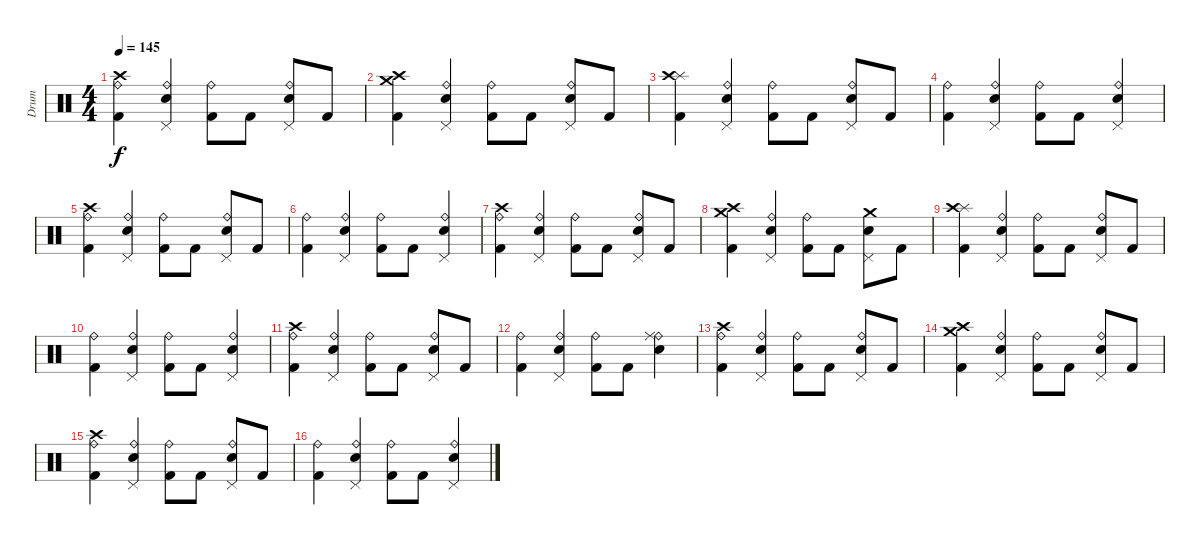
\track ("Drum" "Drum") {instrument percussion}
\staff {score}
\articulation defaults
\ts (4 4)
\tempo 145
\clef neutral
\ks c
("Ride (bell)" "Crash high (hit)" "Kick (hit) 2").4{dy f} ("Ride (bell)" "Snare (hit) 2" "Pedal Hi-Hat (hit)").4 ("Ride (bell)" "Kick (hit) 2").8 "Kick (hit) 2".8 ("Ride (bell)" "Snare (hit) 2" "Pedal Hi-Hat (hit)").8 "Kick (hit) 2".8 |
("Crash medium (hit)" "Crash high (hit)" "Kick (hit) 2").4 ("Ride (bell)" "Snare (hit) 2" "Pedal Hi-Hat (hit)").4 ("Ride (bell)" "Kick (hit) 2").8 "Kick (hit) 2".8 ("Ride (bell)" "Snare (hit) 2" "Pedal Hi-Hat (hit)").8 "Kick (hit) 2".8 |
("Splash (hit)" "Crash high (hit)" "Kick (hit) 2").4 ("Ride (bell)" "Snare (hit) 2" "Pedal Hi-Hat (hit)").4 ("Ride (bell)" "Kick (hit) 2").8 "Kick (hit) 2".8 ("Ride (bell)" "Snare (hit) 2" "Pedal Hi-Hat (hit)").8 "Kick (hit) 2".8 |
("Ride (bell)" "Kick (hit) 2").4 ("Ride (bell)" "Snare (hit) 2" "Pedal Hi-Hat (hit)").4 ("Ride (bell)" "Kick (hit) 2").8 "Kick (hit) 2".8 ("Ride (bell)" "Snare (hit) 2" "Pedal Hi-Hat (hit)").4 |
("Ride (bell)" "Crash high (hit)" "Kick (hit) 2").4 ("Ride (bell)" "Snare (hit) 2" "Pedal Hi-Hat (hit)").4 ("Ride (bell)" "Kick (hit) 2").8 "Kick (hit) 2".8 ("Ride (bell)" "Snare (hit) 2" "Pedal Hi-Hat (hit)").8 "Kick (hit) 2".8 |
("Ride (bell)" "Kick (hit) 2").4 ("Ride (bell)" "Snare (hit) 2" "Pedal Hi-Hat (hit)").4 ("Ride (bell)" "Kick (hit) 2").8 "Kick (hit) 2".8 ("Ride (bell)" "Snare (hit) 2" "Pedal Hi-Hat (hit)").4 |
("Ride (bell)" "Crash high (hit)" "Kick (hit) 2").4 ("Ride (bell)" "Snare (hit) 2" "Pedal Hi-Hat (hit)").4 ("Ride (bell)" "Kick (hit) 2").8 "Kick (hit) 2".8 ("Ride (bell)" "Snare (hit) 2" "Pedal Hi-Hat (hit)").8 "Kick (hit) 2".8 |
("Crash medium (hit)" "Crash high (hit)" "Kick (hit) 2").4 ("Ride (bell)" "Snare (hit) 2" "Pedal Hi-Hat (hit)").4 ("Ride (bell)" "Kick (hit) 2").8 "Kick (hit) 2".8 ("Crash medium (hit)" "Snare (hit) 2" "Pedal Hi-Hat (hit)").8 "Kick (hit) 2".8 |
("Splash (hit)" "Crash high (hit)" "Kick (hit) 2").4 ("Ride (bell)" "Snare (hit) 2" "Pedal Hi-Hat (hit)").4 ("Ride (bell)" "Kick (hit) 2").8 "Kick (hit) 2".8 ("Ride (bell)" "Snare (hit) 2" "Pedal Hi-Hat (hit)").8 "Kick (hit) 2".8 |
("Ride (bell)" "Kick (hit) 2").4 ("Ride (bell)" "Snare (hit) 2" "Pedal Hi-Hat (hit)").4 ("Ride (bell)" "Kick (hit) 2").8 "Kick (hit) 2".8 ("Ride (bell)" "Snare (hit) 2" "Pedal Hi-Hat (hit)").4 |
("Ride (bell)" "Crash high (hit)" "Kick (hit) 2").4 ("Ride (bell)" "Snare (hit) 2" "Pedal Hi-Hat (hit)").4 ("Ride (bell)" "Kick (hit) 2").8 "Kick (hit) 2".8 ("Ride (bell)" "Snare (hit) 2" "Pedal Hi-Hat (hit)").8 "Kick (hit) 2".8 |
("Ride (bell)" "Kick (hit) 2").4 ("Ride (bell)" "Snare (hit) 2" "Pedal Hi-Hat (hit)").4 ("Ride (bell)" "Kick (hit) 2").8 "Kick (hit) 2".8 ("Ride (bell)" "Snare (hit) 2" "Ride (middle)").4 |
("Ride (bell)" "Crash high (hit)" "Kick (hit) 2").4 ("Ride (bell)" "Snare (hit) 2" "Pedal Hi-Hat (hit)").4 ("Ride (bell)" "Kick (hit) 2").8 "Kick (hit) 2".8 ("Ride (bell)" "Snare (hit) 2" "Pedal Hi-Hat (hit)").8 "Kick (hit) 2".8 |
("Crash medium (hit)" "Crash high (hit)" "Kick (hit) 2").4 ("Ride (bell)" "Snare (hit) 2" "Pedal Hi-Hat (hit)").4 ("Ride (bell)" "Kick (hit) 2").8 "Kick (hit) 2".8 ("Ride (bell)" "Snare (hit) 2" "Pedal Hi-Hat (hit)").8 "Kick (hit) 2".8 |
("Ride (bell)" "Crash high (hit)" "Kick (hit) 2").4 ("Ride (bell)" "Snare (hit) 2" "Pedal Hi-Hat (hit)").4 ("Ride (bell)" "Kick (hit) 2").8 "Kick (hit) 2".8 ("Ride (bell)" "Snare (hit) 2" "Pedal Hi-Hat (hit)").8 "Kick (hit) 2".8 |
("Ride (bell)" "Kick (hit) 2").4 ("Ride (bell)" "Snare (hit) 2" "Pedal Hi-Hat (hit)").4 ("Ride (bell)" "Kick (hit) 2").8 "Kick (hit) 2".8 ("Ride (bell)" "Snare (hit) 2" "Pedal Hi-Hat (hit)").4
